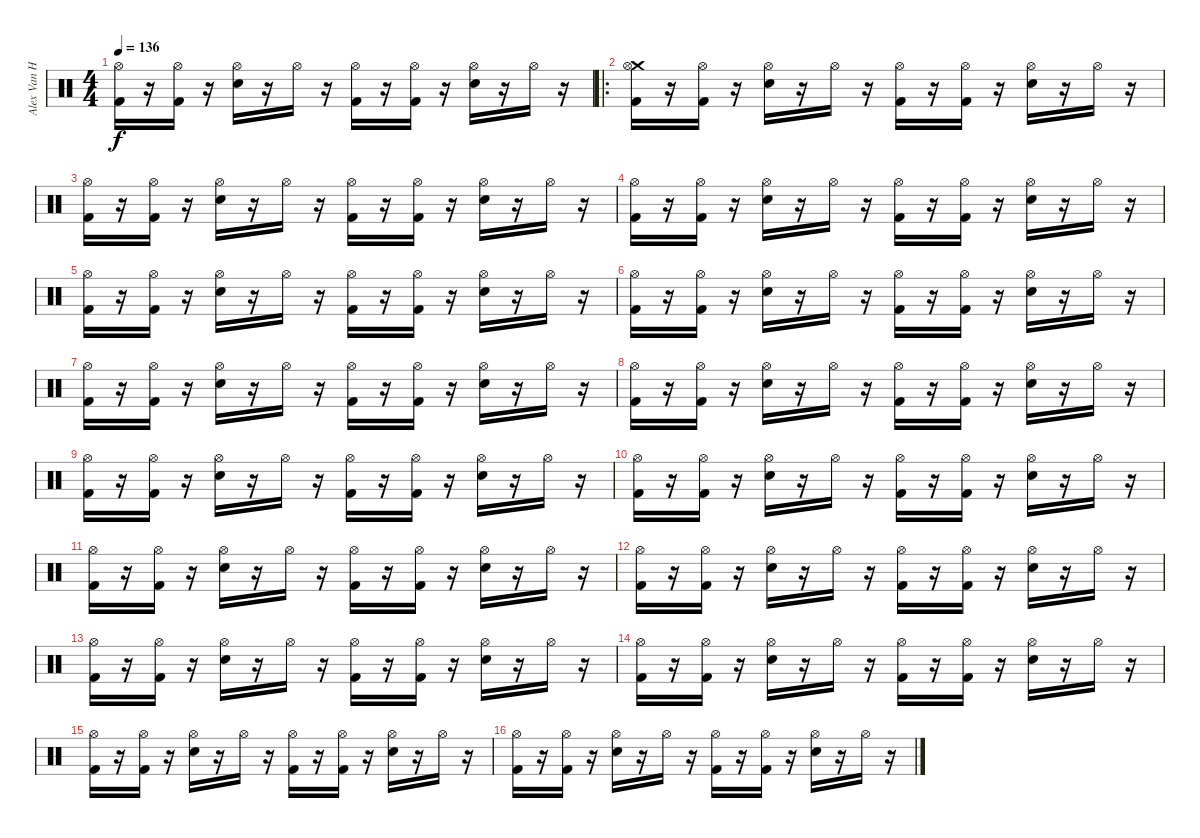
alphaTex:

\track ("Alex Van Halen (Drums)" "Alex Van H") {instrument percussion}
\staff {score}
\articulation defaults
\ts (4 4)
\tempo 136
\clef neutral
\ks c
("Hi-Hat (open)" "Kick (hit) 2").16{dy f} r.16 ("Hi-Hat (open)" "Kick (hit) 2").16 r.16 ("Hi-Hat (open)" "Snare (hit) 2").16 r.16 "Hi-Hat (open)".16 r.16 ("Hi-Hat (open)" "Kick (hit) 2").16 r.16 ("Hi-Hat (open)" "Kick (hit) 2").16 r.16 ("Hi-Hat (open)" "Snare (hit) 2").16 r.16 "Hi-Hat (open)".16 r.16 |
\ro
("Crash medium (hit)" "Hi-Hat (open)" "Kick (hit) 2").16 r.16 ("Hi-Hat (open)" "Kick (hit) 2").16 r.16 ("Hi-Hat (open)" "Snare (hit) 2").16 r.16 "Hi-Hat (open)".16 r.16 ("Hi-Hat (open)" "Kick (hit) 2").16 r.16 ("Hi-Hat (open)" "Kick (hit) 2").16 r.16 ("Hi-Hat (open)" "Snare (hit) 2").16 r.16 "Hi-Hat (open)".16 r.16 |
("Hi-Hat (open)" "Kick (hit) 2").16 r.16 ("Hi-Hat (open)" "Kick (hit) 2").16 r.16 ("Hi-Hat (open)" "Snare (hit) 2").16 r.16 "Hi-Hat (open)".16 r.16 ("Hi-Hat (open)" "Kick (hit) 2").16 r.16 ("Hi-Hat (open)" "Kick (hit) 2").16 r.16 ("Hi-Hat (open)" "Snare (hit) 2").16 r.16 "Hi-Hat (open)".16 r.16 |
("Hi-Hat (open)" "Kick (hit) 2").16 r.16 ("Hi-Hat (open)" "Kick (hit) 2").16 r.16 ("Hi-Hat (open)" "Snare (hit) 2").16 r.16 "Hi-Hat (open)".16 r.16 ("Hi-Hat (open)" "Kick (hit) 2").16 r.16 ("Hi-Hat (open)" "Kick (hit) 2").16 r.16 ("Hi-Hat (open)" "Snare (hit) 2").16 r.16 "Hi-Hat (open)".16 r.16 |
("Hi-Hat (open)" "Kick (hit) 2").16 r.16 ("Hi-Hat (open)" "Kick (hit) 2").16 r.16 ("Hi-Hat (open)" "Snare (hit) 2").16 r.16 "Hi-Hat (open)".16 r.16 ("Hi-Hat (open)" "Kick (hit) 2").16 r.16 ("Hi-Hat (open)" "Kick (hit) 2").16 r.16 ("Hi-Hat (open)" "Snare (hit) 2").16 r.16 "Hi-Hat (open)".16 r.16 |
("Hi-Hat (open)" "Kick (hit) 2").16 r.16 ("Hi-Hat (open)" "Kick (hit) 2").16 r.16 ("Hi-Hat (open)" "Snare (hit) 2").16 r.16 "Hi-Hat (open)".16 r.16 ("Hi-Hat (open)" "Kick (hit) 2").16 r.16 ("Hi-Hat (open)" "Kick (hit) 2").16 r.16 ("Hi-Hat (open)" "Snare (hit) 2").16 r.16 "Hi-Hat (open)".16 r.16 |
("Hi-Hat (open)" "Kick (hit) 2").16 r.16 ("Hi-Hat (open)" "Kick (hit) 2").16 r.16 ("Hi-Hat (open)" "Snare (hit) 2").16 r.16 "Hi-Hat (open)".16 r.16 ("Hi-Hat (open)" "Kick (hit) 2").16 r.16 ("Hi-Hat (open)" "Kick (hit) 2").16 r.16 ("Hi-Hat (open)" "Snare (hit) 2").16 r.16 "Hi-Hat (open)".16 r.16 |
("Hi-Hat (open)" "Kick (hit) 2").16 r.16 ("Hi-Hat (open)" "Kick (hit) 2").16 r.16 ("Hi-Hat (open)" "Snare (hit) 2").16 r.16 "Hi-Hat (open)".16 r.16 ("Hi-Hat (open)" "Kick (hit) 2").16 r.16 ("Hi-Hat (open)" "Kick (hit) 2").16 r.16 ("Hi-Hat (open)" "Snare (hit) 2").16 r.16 "Hi-Hat (open)".16 r.16 |
("Hi-Hat (open)" "Kick (hit) 2").16 r.16 ("Hi-Hat (open)" "Kick (hit) 2").16 r.16 ("Hi-Hat (open)" "Snare (hit) 2").16 r.16 "Hi-Hat (open)".16 r.16 ("Hi-Hat (open)" "Kick (hit) 2").16 r.16 ("Hi-Hat (open)" "Kick (hit) 2").16 r.16 ("Hi-Hat (open)" "Snare (hit) 2").16 r.16 "Hi-Hat (open)".16 r.16 |
("Hi-Hat (open)" "Kick (hit) 2").16 r.16 ("Hi-Hat (open)" "Kick (hit) 2").16 r.16 ("Hi-Hat (open)" "Snare (hit) 2").16 r.16 "Hi-Hat (open)".16 r.16 ("Hi-Hat (open)" "Kick (hit) 2").16 r.16 ("Hi-Hat (open)" "Kick (hit) 2").16 r.16 ("Hi-Hat (open)" "Snare (hit) 2").16 r.16 "Hi-Hat (open)".16 r.16 |
("Hi-Hat (open)" "Kick (hit) 2").16 r.16 ("Hi-Hat (open)" "Kick (hit) 2").16 r.16 ("Hi-Hat (open)" "Snare (hit) 2").16 r.16 "Hi-Hat (open)".16 r.16 ("Hi-Hat (open)" "Kick (hit) 2").16 r.16 ("Hi-Hat (open)" "Kick (hit) 2").16 r.16 ("Hi-Hat (open)" "Snare (hit) 2").16 r.16 "Hi-Hat (open)".16 r.16 |
("Hi-Hat (open)" "Kick (hit) 2").16 r.16 ("Hi-Hat (open)" "Kick (hit) 2").16 r.16 ("Hi-Hat (open)" "Snare (hit) 2").16 r.16 "Hi-Hat (open)".16 r.16 ("Hi-Hat (open)" "Kick (hit) 2").16 r.16 ("Hi-Hat (open)" "Kick (hit) 2").16 r.16 ("Hi-Hat (open)" "Snare (hit) 2").16 r.16 "Hi-Hat (open)".16 r.16 |
("Hi-Hat (open)" "Kick (hit) 2").16 r.16 ("Hi-Hat (open)" "Kick (hit) 2").16 r.16 ("Hi-Hat (open)" "Snare (hit) 2").16 r.16 "Hi-Hat (open)".16 r.16 ("Hi-Hat (open)" "Kick (hit) 2").16 r.16 ("Hi-Hat (open)" "Kick (hit) 2").16 r.16 ("Hi-Hat (open)" "Snare (hit) 2").16 r.16 "Hi-Hat (open)".16 r.16 |
("Hi-Hat (open)" "Kick (hit) 2").16 r.16 ("Hi-Hat (open)" "Kick (hit) 2").16 r.16 ("Hi-Hat (open)" "Snare (hit) 2").16 r.16 "Hi-Hat (open)".16 r.16 ("Hi-Hat (open)" "Kick (hit) 2").16 r.16 ("Hi-Hat (open)" "Kick (hit) 2").16 r.16 ("Hi-Hat (open)" "Snare (hit) 2").16 r.16 "Hi-Hat (open)".16 r.16 |
("Hi-Hat (open)" "Kick (hit) 2").16 r.16 ("Hi-Hat (open)" "Kick (hit) 2").16 r.16 ("Hi-Hat (open)" "Snare (hit) 2").16 r.16 "Hi-Hat (open)".16 r.16 ("Hi-Hat (open)" "Kick (hit) 2").16 r.16 ("Hi-Hat (open)" "Kick (hit) 2").16 r.16 ("Hi-Hat (open)" "Snare (hit) 2").16 r.16 "Hi-Hat (open)".16 r.16 |
("Hi-Hat (open)" "Kick (hit) 2").16 r.16 ("Hi-Hat (open)" "Kick (hit) 2").16 r.16 ("Hi-Hat (open)" "Snare (hit) 2").16 r.16 "Hi-Hat (open)".16 r.16 ("Hi-Hat (open)" "Kick (hit) 2").16 r.16 ("Hi-Hat (open)" "Kick (hit) 2").16 r.16 ("Hi-Hat (open)" "Snare (hit) 2").16 r.16 "Hi-Hat (open)".16 r.16
